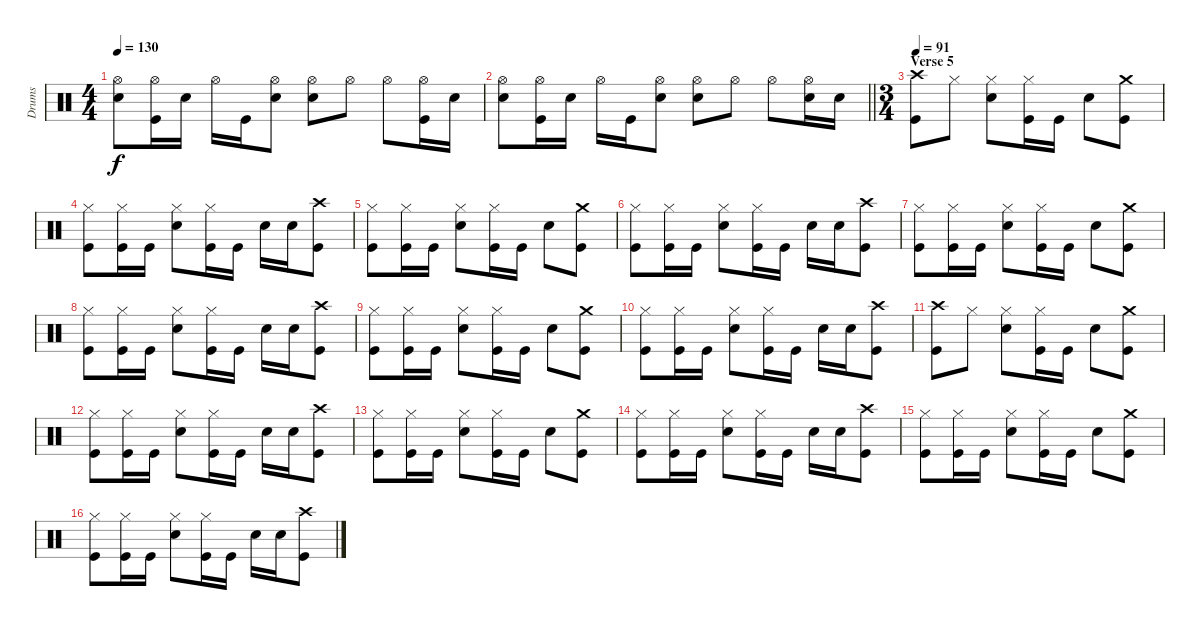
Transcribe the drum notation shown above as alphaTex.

\track ("Drums" "Drums") {instrument percussion}
\staff {score}
\articulation defaults
\ts (4 4)
\tempo 130
\clef neutral
\ks c
("Hi-Hat (open)" "Snare (hit) 2").8{dy f} ("Hi-Hat (open)" "Kick (hit)").16 "Snare (hit) 2".16 "Hi-Hat (open)".16 "Kick (hit)".16 ("Hi-Hat (open)" "Snare (hit) 2").8 ("Hi-Hat (open)" "Snare (hit) 2").8 "Hi-Hat (open)".8 "Hi-Hat (open)".8 ("Hi-Hat (open)" "Kick (hit)").16 "Snare (hit) 2".16 |
\barLineRight lightlight
("Hi-Hat (open)" "Snare (hit) 2").8 ("Hi-Hat (open)" "Kick (hit)").16 "Snare (hit) 2".16 "Hi-Hat (open)".16 "Kick (hit)".16 ("Hi-Hat (open)" "Snare (hit) 2").8 ("Hi-Hat (open)" "Snare (hit) 2").8 "Hi-Hat (open)".8 "Hi-Hat (open)".8 ("Hi-Hat (open)" "Snare (hit) 2").16 "Snare (hit) 2".16 |
\ts (3 4)
\section ("" "Verse 5")
\tempo 91
("Crash high (hit)" "Kick (hit)").8 "Hi-Hat (closed)".8 ("Hi-Hat (closed)" "Snare (hit) 2").8 ("Hi-Hat (closed)" "Kick (hit)").16 "Kick (hit)".16 "Snare (hit) 2".8 ("Crash medium (hit)" "Kick (hit)").8 |
("Hi-Hat (closed)" "Kick (hit)").8 ("Hi-Hat (closed)" "Kick (hit)").16 "Kick (hit)".16 ("Hi-Hat (closed)" "Snare (hit) 2").8 ("Hi-Hat (closed)" "Kick (hit)").16 "Kick (hit)".16 "Snare (hit) 2".16 "Snare (hit) 2".16 ("Crash high (hit)" "Kick (hit)").8 |
("Hi-Hat (closed)" "Kick (hit)").8 ("Hi-Hat (closed)" "Kick (hit)").16 "Kick (hit)".16 ("Hi-Hat (closed)" "Snare (hit) 2").8 ("Hi-Hat (closed)" "Kick (hit)").16 "Kick (hit)".16 "Snare (hit) 2".8 ("Crash medium (hit)" "Kick (hit)").8 |
("Hi-Hat (closed)" "Kick (hit)").8 ("Hi-Hat (closed)" "Kick (hit)").16 "Kick (hit)".16 ("Hi-Hat (closed)" "Snare (hit) 2").8 ("Hi-Hat (closed)" "Kick (hit)").16 "Kick (hit)".16 "Snare (hit) 2".16 "Snare (hit) 2".16 ("Crash high (hit)" "Kick (hit)").8 |
("Hi-Hat (closed)" "Kick (hit)").8 ("Hi-Hat (closed)" "Kick (hit)").16 "Kick (hit)".16 ("Hi-Hat (closed)" "Snare (hit) 2").8 ("Hi-Hat (closed)" "Kick (hit)").16 "Kick (hit)".16 "Snare (hit) 2".8 ("Crash medium (hit)" "Kick (hit)").8 |
("Hi-Hat (closed)" "Kick (hit)").8 ("Hi-Hat (closed)" "Kick (hit)").16 "Kick (hit)".16 ("Hi-Hat (closed)" "Snare (hit) 2").8 ("Hi-Hat (closed)" "Kick (hit)").16 "Kick (hit)".16 "Snare (hit) 2".16 "Snare (hit) 2".16 ("Crash high (hit)" "Kick (hit)").8 |
("Hi-Hat (closed)" "Kick (hit)").8 ("Hi-Hat (closed)" "Kick (hit)").16 "Kick (hit)".16 ("Hi-Hat (closed)" "Snare (hit) 2").8 ("Hi-Hat (closed)" "Kick (hit)").16 "Kick (hit)".16 "Snare (hit) 2".8 ("Crash medium (hit)" "Kick (hit)").8 |
("Hi-Hat (closed)" "Kick (hit)").8 ("Hi-Hat (closed)" "Kick (hit)").16 "Kick (hit)".16 ("Hi-Hat (closed)" "Snare (hit) 2").8 ("Hi-Hat (closed)" "Kick (hit)").16 "Kick (hit)".16 "Snare (hit) 2".16 "Snare (hit) 2".16 ("Crash high (hit)" "Kick (hit)").8 |
("Crash high (hit)" "Kick (hit)").8 "Hi-Hat (closed)".8 ("Hi-Hat (closed)" "Snare (hit) 2").8 ("Hi-Hat (closed)" "Kick (hit)").16 "Kick (hit)".16 "Snare (hit) 2".8 ("Crash medium (hit)" "Kick (hit)").8 |
("Hi-Hat (closed)" "Kick (hit)").8 ("Hi-Hat (closed)" "Kick (hit)").16 "Kick (hit)".16 ("Hi-Hat (closed)" "Snare (hit) 2").8 ("Hi-Hat (closed)" "Kick (hit)").16 "Kick (hit)".16 "Snare (hit) 2".16 "Snare (hit) 2".16 ("Crash high (hit)" "Kick (hit)").8 |
("Hi-Hat (closed)" "Kick (hit)").8 ("Hi-Hat (closed)" "Kick (hit)").16 "Kick (hit)".16 ("Hi-Hat (closed)" "Snare (hit) 2").8 ("Hi-Hat (closed)" "Kick (hit)").16 "Kick (hit)".16 "Snare (hit) 2".8 ("Crash medium (hit)" "Kick (hit)").8 |
("Hi-Hat (closed)" "Kick (hit)").8 ("Hi-Hat (closed)" "Kick (hit)").16 "Kick (hit)".16 ("Hi-Hat (closed)" "Snare (hit) 2").8 ("Hi-Hat (closed)" "Kick (hit)").16 "Kick (hit)".16 "Snare (hit) 2".16 "Snare (hit) 2".16 ("Crash high (hit)" "Kick (hit)").8 |
("Hi-Hat (closed)" "Kick (hit)").8 ("Hi-Hat (closed)" "Kick (hit)").16 "Kick (hit)".16 ("Hi-Hat (closed)" "Snare (hit) 2").8 ("Hi-Hat (closed)" "Kick (hit)").16 "Kick (hit)".16 "Snare (hit) 2".8 ("Crash medium (hit)" "Kick (hit)").8 |
("Hi-Hat (closed)" "Kick (hit)").8 ("Hi-Hat (closed)" "Kick (hit)").16 "Kick (hit)".16 ("Hi-Hat (closed)" "Snare (hit) 2").8 ("Hi-Hat (closed)" "Kick (hit)").16 "Kick (hit)".16 "Snare (hit) 2".16 "Snare (hit) 2".16 ("Crash high (hit)" "Kick (hit)").8
